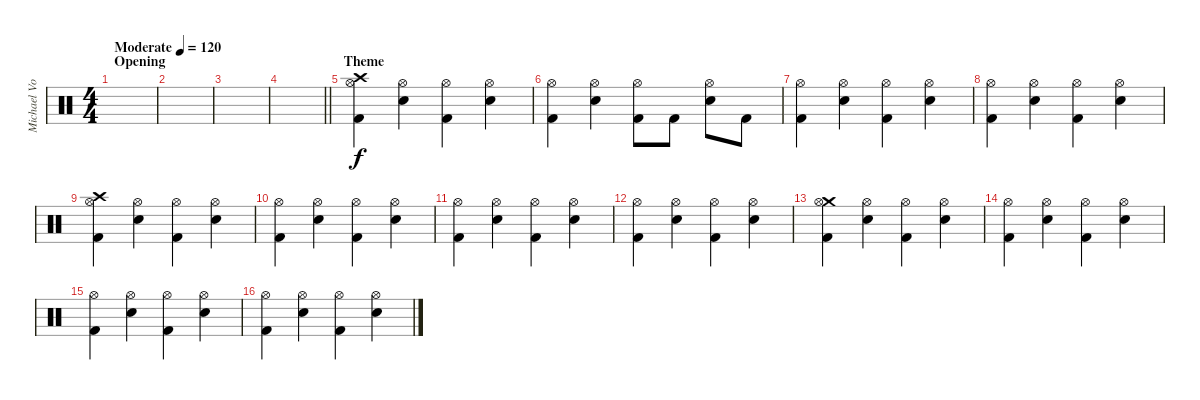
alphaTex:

\track ("Michael Von Knorring" "Michael Vo") {instrument percussion}
\staff {score}
\articulation defaults
\ts (4 4)
\section ("" "Opening")
\tempo (120 "Moderate")
\clef neutral
\ks c
|
|
|
\barLineRight lightlight
|
\section ("" "Theme")
("Crash high (hit)" "Hi-Hat (open)" "Kick (hit) 2").4 ("Hi-Hat (open)" "Snare (hit) 2").4 ("Hi-Hat (open)" "Kick (hit) 2").4 ("Hi-Hat (open)" "Snare (hit) 2").4 |
("Hi-Hat (open)" "Kick (hit) 2").4 ("Hi-Hat (open)" "Snare (hit) 2").4 ("Hi-Hat (open)" "Kick (hit) 2").8 "Kick (hit) 2".8 ("Hi-Hat (open)" "Snare (hit) 2").8 "Kick (hit) 2".8 |
("Hi-Hat (open)" "Kick (hit) 2").4 ("Hi-Hat (open)" "Snare (hit) 2").4 ("Hi-Hat (open)" "Kick (hit) 2").4 ("Hi-Hat (open)" "Snare (hit) 2").4 |
("Hi-Hat (open)" "Kick (hit) 2").4 ("Hi-Hat (open)" "Snare (hit) 2").4 ("Hi-Hat (open)" "Kick (hit) 2").4 ("Hi-Hat (open)" "Snare (hit) 2").4 |
("Crash high (hit)" "Hi-Hat (open)" "Kick (hit) 2").4 ("Hi-Hat (open)" "Snare (hit) 2").4 ("Hi-Hat (open)" "Kick (hit) 2").4 ("Hi-Hat (open)" "Snare (hit) 2").4 |
("Hi-Hat (open)" "Kick (hit) 2").4 ("Hi-Hat (open)" "Snare (hit) 2").4 ("Hi-Hat (open)" "Kick (hit) 2").4 ("Hi-Hat (open)" "Snare (hit) 2").4 |
("Hi-Hat (open)" "Kick (hit) 2").4 ("Hi-Hat (open)" "Snare (hit) 2").4 ("Hi-Hat (open)" "Kick (hit) 2").4 ("Hi-Hat (open)" "Snare (hit) 2").4 |
("Hi-Hat (open)" "Kick (hit) 2").4 ("Hi-Hat (open)" "Snare (hit) 2").4 ("Hi-Hat (open)" "Kick (hit) 2").4 ("Hi-Hat (open)" "Snare (hit) 2").4 |
("Crash medium (hit)" "Hi-Hat (open)" "Kick (hit) 2").4 ("Hi-Hat (open)" "Snare (hit) 2").4 ("Hi-Hat (open)" "Kick (hit) 2").4 ("Hi-Hat (open)" "Snare (hit) 2").4 |
("Hi-Hat (open)" "Kick (hit) 2").4 ("Hi-Hat (open)" "Snare (hit) 2").4 ("Hi-Hat (open)" "Kick (hit) 2").4 ("Hi-Hat (open)" "Snare (hit) 2").4 |
("Hi-Hat (open)" "Kick (hit) 2").4 ("Hi-Hat (open)" "Snare (hit) 2").4 ("Hi-Hat (open)" "Kick (hit) 2").4 ("Hi-Hat (open)" "Snare (hit) 2").4 |
("Hi-Hat (open)" "Kick (hit) 2").4 ("Hi-Hat (open)" "Snare (hit) 2").4 ("Hi-Hat (open)" "Kick (hit) 2").4 ("Hi-Hat (open)" "Snare (hit) 2").4
